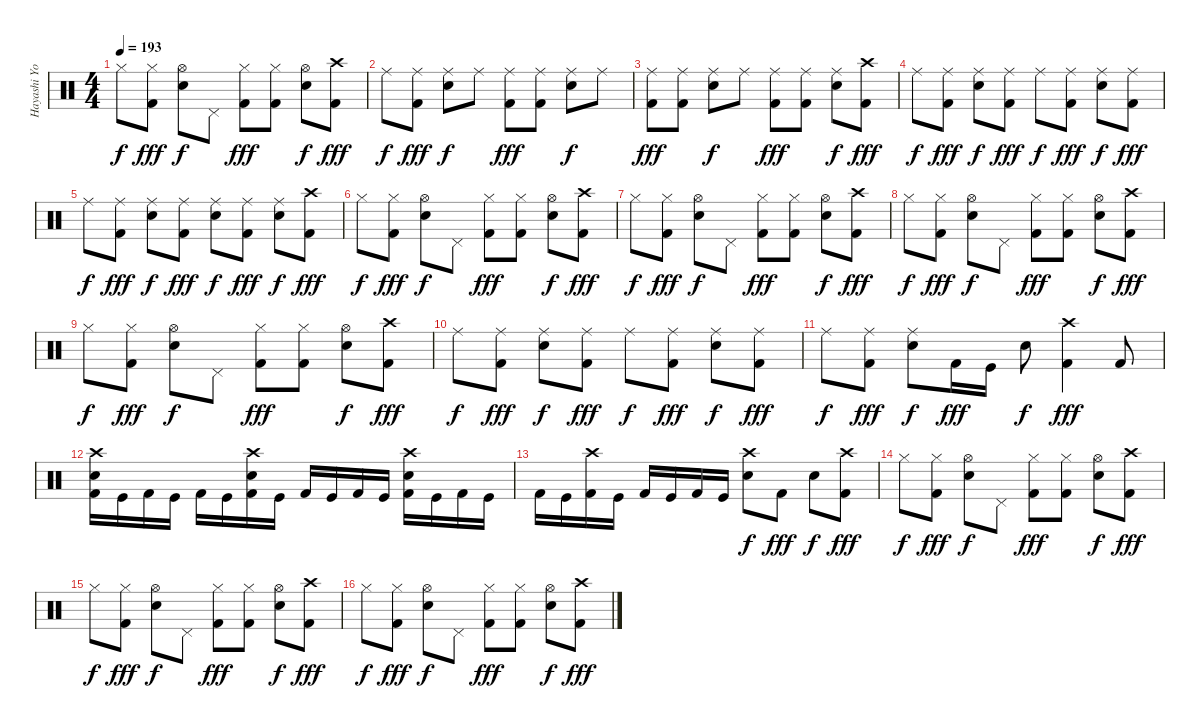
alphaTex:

\track ("Hayashi Yoshiki(Yoshiki)" "Hayashi Yo") {instrument percussion}
\staff {score}
\articulation defaults
\ts (4 4)
\tempo 193
\clef neutral
\ks c "Hi-Hat (closed)".8{dy f}
("Hi-Hat (closed)" "Kick (hit) 2").8{dy fff} ("Hi-Hat (open)" "Electric Snare (hit)").8{dy f} "Pedal Hi-Hat (hit)".8 ("Hi-Hat (closed)" "Kick (hit) 2").8{dy fff} ("Hi-Hat (closed)" "Kick (hit) 2").8 ("Hi-Hat (open)" "Electric Snare (hit)").8{dy f} ("Crash high (hit)" "Kick (hit) 2").8{dy fff} |
"Ride (middle)".8{dy f} ("Ride (middle)" "Kick (hit) 2").8{dy fff} ("Ride (middle)" "Electric Snare (hit)").8{dy f} "Ride (middle)".8 ("Ride (middle)" "Kick (hit) 2").8{dy fff} ("Ride (middle)" "Kick (hit) 2").8 ("Ride (middle)" "Electric Snare (hit)").8{dy f} "Ride (middle)".8 |
("Ride (middle)" "Kick (hit) 2").8{dy fff} ("Ride (middle)" "Kick (hit) 2").8 ("Ride (middle)" "Electric Snare (hit)").8{dy f} "Ride (middle)".8 ("Ride (middle)" "Kick (hit) 2").8{dy fff} ("Ride (middle)" "Kick (hit) 2").8 ("Ride (middle)" "Electric Snare (hit)").8{dy f} ("Crash high (hit)" "Kick (hit) 2").8{dy fff} |
"Ride (middle)".8{dy f} ("Ride (middle)" "Kick (hit) 2").8{dy fff} ("Ride (middle)" "Electric Snare (hit)").8{dy f} ("Ride (middle)" "Kick (hit) 2").8{dy fff} "Ride (middle)".8{dy f} ("Ride (middle)" "Kick (hit) 2").8{dy fff} ("Ride (middle)" "Electric Snare (hit)").8{dy f} ("Ride (middle)" "Kick (hit) 2").8{dy fff} |
"Ride (middle)".8{dy f} ("Ride (middle)" "Kick (hit) 2").8{dy fff} ("Ride (middle)" "Electric Snare (hit)").8{dy f} ("Ride (middle)" "Kick (hit) 2").8{dy fff} ("Ride (middle)" "Electric Snare (hit)").8{dy f} ("Ride (middle)" "Kick (hit) 2").8{dy fff} ("Ride (middle)" "Electric Snare (hit)").8{dy f} ("Crash high (hit)" "Kick (hit) 2").8{dy fff} |
"Hi-Hat (closed)".8{dy f} ("Hi-Hat (closed)" "Kick (hit) 2").8{dy fff} ("Hi-Hat (open)" "Electric Snare (hit)").8{dy f} "Pedal Hi-Hat (hit)".8 ("Hi-Hat (closed)" "Kick (hit) 2").8{dy fff} ("Hi-Hat (closed)" "Kick (hit) 2").8 ("Hi-Hat (open)" "Electric Snare (hit)").8{dy f} ("Crash high (hit)" "Kick (hit) 2").8{dy fff} |
"Hi-Hat (closed)".8{dy f} ("Hi-Hat (closed)" "Kick (hit) 2").8{dy fff} ("Hi-Hat (open)" "Electric Snare (hit)").8{dy f} "Pedal Hi-Hat (hit)".8 ("Hi-Hat (closed)" "Kick (hit) 2").8{dy fff} ("Hi-Hat (closed)" "Kick (hit) 2").8 ("Hi-Hat (open)" "Electric Snare (hit)").8{dy f} ("Crash high (hit)" "Kick (hit) 2").8{dy fff} |
"Hi-Hat (closed)".8{dy f} ("Hi-Hat (closed)" "Kick (hit) 2").8{dy fff} ("Hi-Hat (open)" "Electric Snare (hit)").8{dy f} "Pedal Hi-Hat (hit)".8 ("Hi-Hat (closed)" "Kick (hit) 2").8{dy fff} ("Hi-Hat (closed)" "Kick (hit) 2").8 ("Hi-Hat (open)" "Electric Snare (hit)").8{dy f} ("Crash high (hit)" "Kick (hit) 2").8{dy fff} |
"Hi-Hat (closed)".8{dy f} ("Hi-Hat (closed)" "Kick (hit) 2").8{dy fff} ("Hi-Hat (open)" "Electric Snare (hit)").8{dy f} "Pedal Hi-Hat (hit)".8 ("Hi-Hat (closed)" "Kick (hit) 2").8{dy fff} ("Hi-Hat (closed)" "Kick (hit) 2").8 ("Hi-Hat (open)" "Electric Snare (hit)").8{dy f} ("Crash high (hit)" "Kick (hit) 2").8{dy fff} |
"Ride (middle)".8{dy f} ("Ride (middle)" "Kick (hit) 2").8{dy fff} ("Ride (middle)" "Electric Snare (hit)").8{dy f} ("Ride (middle)" "Kick (hit) 2").8{dy fff} "Ride (middle)".8{dy f} ("Ride (middle)" "Kick (hit) 2").8{dy fff} ("Ride (middle)" "Electric Snare (hit)").8{dy f} ("Ride (middle)" "Kick (hit) 2").8{dy fff} |
"Ride (middle)".8{dy f} ("Ride (middle)" "Kick (hit) 2").8{dy fff} ("Ride (middle)" "Electric Snare (hit)").8{dy f} "Kick (hit) 2".16{dy fff} "Kick (hit)".16 "Electric Snare (hit)".8{dy f} ("Crash high (hit)" "Kick (hit) 2").4{dy fff} "Kick (hit) 2".8 |
("Crash high (hit)" "Electric Snare (hit)" "Kick (hit) 2").16 "Kick (hit)".16 "Kick (hit) 2".16 "Kick (hit)".16 "Kick (hit) 2".16 "Kick (hit)".16 ("Crash high (hit)" "Electric Snare (hit)" "Kick (hit) 2").16 "Kick (hit)".16 "Kick (hit) 2".16 "Kick (hit)".16 "Kick (hit) 2".16 "Kick (hit)".16 ("Crash high (hit)" "Electric Snare (hit)" "Kick (hit) 2").16 "Kick (hit)".16 "Kick (hit) 2".16 "Kick (hit)".16 |
"Kick (hit) 2".16 "Kick (hit)".16 ("Crash high (hit)" "Kick (hit) 2").16 "Kick (hit)".16 "Kick (hit) 2".16 "Kick (hit)".16 "Kick (hit) 2".16 "Kick (hit)".16 ("Crash high (hit)" "Electric Snare (hit)").8{dy f} "Kick (hit) 2".8{dy fff} "Electric Snare (hit)".8{dy f} ("Crash high (hit)" "Kick (hit) 2").8{dy fff} |
"Hi-Hat (closed)".8{dy f} ("Hi-Hat (closed)" "Kick (hit) 2").8{dy fff} ("Hi-Hat (open)" "Electric Snare (hit)").8{dy f} "Pedal Hi-Hat (hit)".8 ("Hi-Hat (closed)" "Kick (hit) 2").8{dy fff} ("Hi-Hat (closed)" "Kick (hit) 2").8 ("Hi-Hat (open)" "Electric Snare (hit)").8{dy f} ("Crash high (hit)" "Kick (hit) 2").8{dy fff} |
"Hi-Hat (closed)".8{dy f} ("Hi-Hat (closed)" "Kick (hit) 2").8{dy fff} ("Hi-Hat (open)" "Electric Snare (hit)").8{dy f} "Pedal Hi-Hat (hit)".8 ("Hi-Hat (closed)" "Kick (hit) 2").8{dy fff} ("Hi-Hat (closed)" "Kick (hit) 2").8 ("Hi-Hat (open)" "Electric Snare (hit)").8{dy f} ("Crash high (hit)" "Kick (hit) 2").8{dy fff} |
"Hi-Hat (closed)".8{dy f} ("Hi-Hat (closed)" "Kick (hit) 2").8{dy fff} ("Hi-Hat (open)" "Electric Snare (hit)").8{dy f} "Pedal Hi-Hat (hit)".8 ("Hi-Hat (closed)" "Kick (hit) 2").8{dy fff} ("Hi-Hat (closed)" "Kick (hit) 2").8 ("Hi-Hat (open)" "Electric Snare (hit)").8{dy f} ("Crash high (hit)" "Kick (hit) 2").8{dy fff}
